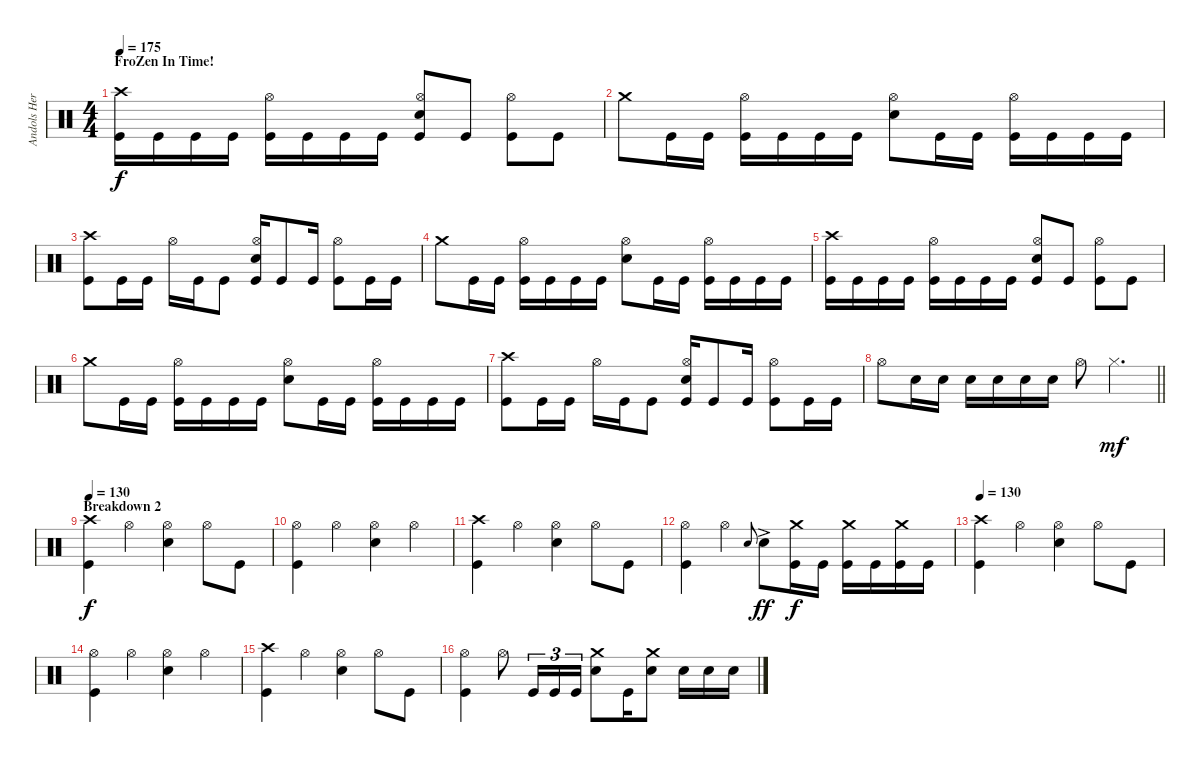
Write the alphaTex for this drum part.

\track ("Andols Herrick" "Andols Her") {instrument percussion}
\staff {score}
\articulation defaults
\ts (4 4)
\section ("" "FroZen In Time!")
\tempo 175
\clef neutral
\ks c
("Crash high (hit)" "Kick (hit)").16{dy f} "Kick (hit)".16 "Kick (hit)".16 "Kick (hit)".16 ("Hi-Hat (open)" "Kick (hit)").16 "Kick (hit)".16 "Kick (hit)".16 "Kick (hit)".16 ("Hi-Hat (open)" "Electric Snare (hit)" "Kick (hit)").8 "Kick (hit)".8 ("Hi-Hat (open)" "Kick (hit)").8 "Kick (hit)".8 |
"Crash medium (hit)".8 "Kick (hit)".16 "Kick (hit)".16 ("Hi-Hat (open)" "Kick (hit)").16 "Kick (hit)".16 "Kick (hit)".16 "Kick (hit)".16 ("Hi-Hat (open)" "Electric Snare (hit)").8 "Kick (hit)".16 "Kick (hit)".16 ("Hi-Hat (open)" "Kick (hit)").16 "Kick (hit)".16 "Kick (hit)".16 "Kick (hit)".16 |
("Crash high (hit)" "Kick (hit)").8 "Kick (hit)".16 "Kick (hit)".16 "Hi-Hat (open)".16 "Kick (hit)".16 "Kick (hit)".8 ("Hi-Hat (open)" "Electric Snare (hit)" "Kick (hit)").16 "Kick (hit)".8 "Kick (hit)".16 ("Hi-Hat (open)" "Kick (hit)").8 "Kick (hit)".16 "Kick (hit)".16 |
"Crash medium (hit)".8 "Kick (hit)".16 "Kick (hit)".16 ("Hi-Hat (open)" "Kick (hit)").16 "Kick (hit)".16 "Kick (hit)".16 "Kick (hit)".16 ("Hi-Hat (open)" "Electric Snare (hit)").8 "Kick (hit)".16 "Kick (hit)".16 ("Hi-Hat (open)" "Kick (hit)").16 "Kick (hit)".16 "Kick (hit)".16 "Kick (hit)".16 |
("Crash high (hit)" "Kick (hit)").16 "Kick (hit)".16 "Kick (hit)".16 "Kick (hit)".16 ("Hi-Hat (open)" "Kick (hit)").16 "Kick (hit)".16 "Kick (hit)".16 "Kick (hit)".16 ("Hi-Hat (open)" "Electric Snare (hit)" "Kick (hit)").8 "Kick (hit)".8 ("Hi-Hat (open)" "Kick (hit)").8 "Kick (hit)".8 |
"Crash medium (hit)".8 "Kick (hit)".16 "Kick (hit)".16 ("Hi-Hat (open)" "Kick (hit)").16 "Kick (hit)".16 "Kick (hit)".16 "Kick (hit)".16 ("Hi-Hat (open)" "Electric Snare (hit)").8 "Kick (hit)".16 "Kick (hit)".16 ("Hi-Hat (open)" "Kick (hit)").16 "Kick (hit)".16 "Kick (hit)".16 "Kick (hit)".16 |
("Crash high (hit)" "Kick (hit)").8 "Kick (hit)".16 "Kick (hit)".16 "Hi-Hat (open)".16 "Kick (hit)".16 "Kick (hit)".8 ("Hi-Hat (open)" "Electric Snare (hit)" "Kick (hit)").16 "Kick (hit)".8 "Kick (hit)".16 ("Hi-Hat (open)" "Kick (hit)").8 "Kick (hit)".16 "Kick (hit)".16 |
\barLineRight lightlight "Hi-Hat (open)".8 "Electric Snare (hit)".16 "Electric Snare (hit)".16 "Electric Snare (hit)".16 "Electric Snare (hit)".16 "Electric Snare (hit)".16 "Electric Snare (hit)".16 "Hi-Hat (open)".8 "Hi-Hat (closed)".4{d dy mf}
|
\section ("" "Breakdown 2")
\tempo 130
("Crash high (hit)" "Kick (hit)").4{dy f} "Hi-Hat (open)".4 ("Hi-Hat (open)" "Electric Snare (hit)").4 "Hi-Hat (open)".8 "Kick (hit)".8 |
("Hi-Hat (open)" "Kick (hit)").4 "Hi-Hat (open)".4 ("Hi-Hat (open)" "Electric Snare (hit)").4 "Hi-Hat (open)".4 |
("Crash high (hit)" "Kick (hit)").4 "Hi-Hat (open)".4 ("Hi-Hat (open)" "Electric Snare (hit)").4 "Hi-Hat (open)".8 "Kick (hit)".8 |
("Hi-Hat (open)" "Kick (hit)").4 "Hi-Hat (open)".4 "Electric Snare (hit)".8{gr onbeat} "Electric Snare (hit)"{ac}.8{dy ff} ("Crash medium (hit)" "Kick (hit)").16{dy f} "Kick (hit)".16 ("Crash medium (hit)" "Kick (hit)").16 "Kick (hit)".16 ("Crash medium (hit)" "Kick (hit)").16 "Kick (hit)".16 |
\tempo 130
("Crash high (hit)" "Kick (hit)").4 "Hi-Hat (open)".4 ("Hi-Hat (open)" "Electric Snare (hit)").4 "Hi-Hat (open)".8 "Kick (hit)".8 |
("Hi-Hat (open)" "Kick (hit)").4 "Hi-Hat (open)".4 ("Hi-Hat (open)" "Electric Snare (hit)").4 "Hi-Hat (open)".4 |
("Crash high (hit)" "Kick (hit)").4 "Hi-Hat (open)".4 ("Hi-Hat (open)" "Electric Snare (hit)").4 "Hi-Hat (open)".8 "Kick (hit)".8 |
("Hi-Hat (open)" "Kick (hit)").4 "Hi-Hat (open)".8 "Kick (hit)".16{tu (3 2)} "Kick (hit)".16{tu (3 2)} "Kick (hit)".16{tu (3 2)} ("Crash medium (hit)" "Electric Snare (hit)").8 "Kick (hit)".16 ("Crash medium (hit)" "Electric Snare (hit)").8 "Electric Snare (hit)".16 "Electric Snare (hit)".16 "Electric Snare (hit)".16
